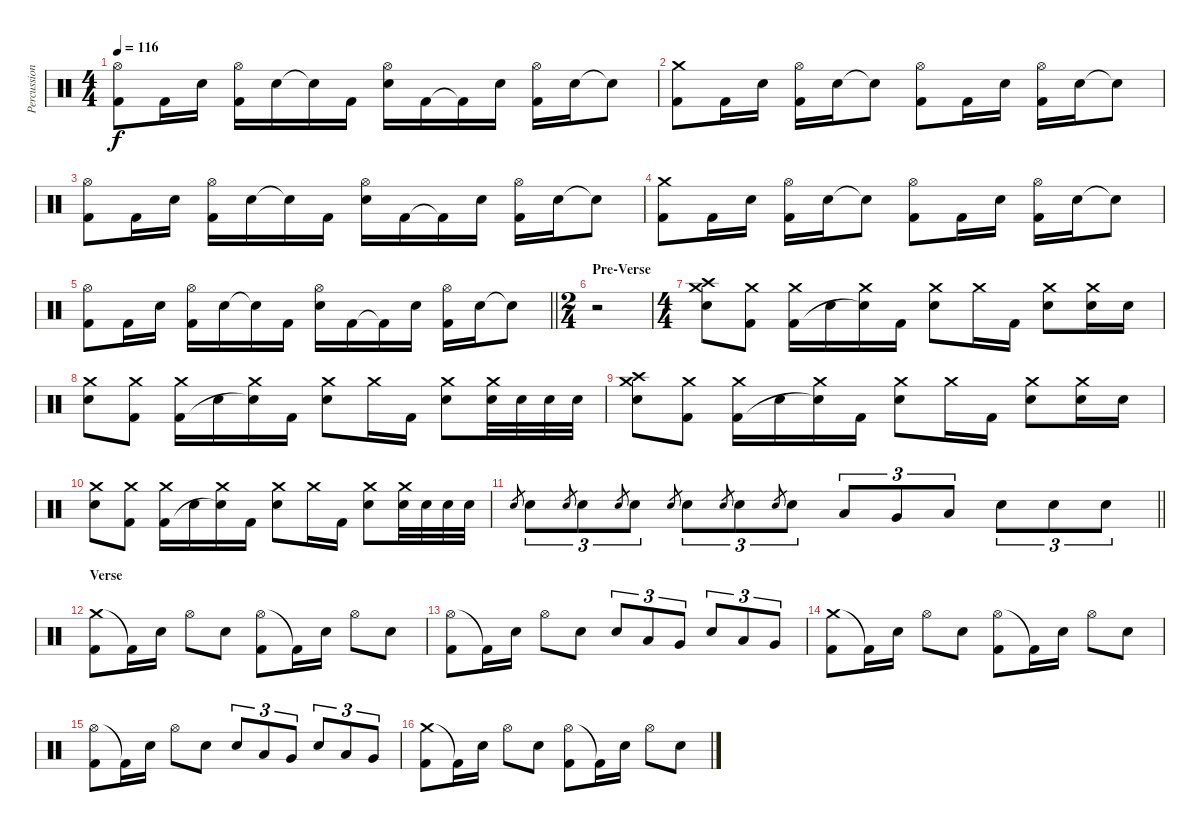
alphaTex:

\track ("Percussion" "Percussion") {instrument percussion}
\staff {score}
\articulation defaults
\ts (4 4)
\tempo 116
\clef neutral
\ks c
("Hi-Hat (open)" "Kick (hit) 2").8{dy f} "Kick (hit) 2".16 "Electric Snare (hit)".16 ("Hi-Hat (open)" "Kick (hit) 2").16 "Electric Snare (hit)".16 "Electric Snare (hit)"{t}.16 "Kick (hit) 2".16 ("Hi-Hat (open)" "Electric Snare (hit)").16 "Kick (hit) 2".16 "Kick (hit) 2"{t}.16 "Electric Snare (hit)".16 ("Hi-Hat (open)" "Kick (hit) 2").16 "Electric Snare (hit)".16 "Electric Snare (hit)"{t}.8 |
("Crash medium (hit)" "Kick (hit) 2").8 "Kick (hit) 2".16 "Electric Snare (hit)".16 ("Hi-Hat (open)" "Kick (hit) 2").16 "Electric Snare (hit)".16 "Electric Snare (hit)"{t}.8 ("Hi-Hat (open)" "Kick (hit) 2").8 "Kick (hit) 2".16 "Electric Snare (hit)".16 ("Hi-Hat (open)" "Kick (hit) 2").16 "Electric Snare (hit)".16 "Electric Snare (hit)"{t}.8 |
("Hi-Hat (open)" "Kick (hit) 2").8 "Kick (hit) 2".16 "Electric Snare (hit)".16 ("Hi-Hat (open)" "Kick (hit) 2").16 "Electric Snare (hit)".16 "Electric Snare (hit)"{t}.16 "Kick (hit) 2".16 ("Hi-Hat (open)" "Electric Snare (hit)").16 "Kick (hit) 2".16 "Kick (hit) 2"{t}.16 "Electric Snare (hit)".16 ("Hi-Hat (open)" "Kick (hit) 2").16 "Electric Snare (hit)".16 "Electric Snare (hit)"{t}.8 |
("Crash medium (hit)" "Kick (hit) 2").8 "Kick (hit) 2".16 "Electric Snare (hit)".16 ("Hi-Hat (open)" "Kick (hit) 2").16 "Electric Snare (hit)".16 "Electric Snare (hit)"{t}.8 ("Hi-Hat (open)" "Kick (hit) 2").8 "Kick (hit) 2".16 "Electric Snare (hit)".16 ("Hi-Hat (open)" "Kick (hit) 2").16 "Electric Snare (hit)".16 "Electric Snare (hit)"{t}.8 |
\barLineRight lightlight
("Hi-Hat (open)" "Kick (hit) 2").8 "Kick (hit) 2".16 "Electric Snare (hit)".16 ("Hi-Hat (open)" "Kick (hit) 2").16 "Electric Snare (hit)".16 "Electric Snare (hit)"{t}.16 "Kick (hit) 2".16 ("Hi-Hat (open)" "Electric Snare (hit)").16 "Kick (hit) 2".16 "Kick (hit) 2"{t}.16 "Electric Snare (hit)".16 ("Hi-Hat (open)" "Kick (hit) 2").16 "Electric Snare (hit)".16 "Electric Snare (hit)"{t}.8 |
\ts (2 4)
\section ("" "Pre-Verse")
r.2 |
\ts (4 4)
("Crash medium (hit)" "Crash high (hit)" "Electric Snare (hit)").8 ("Crash medium (hit)" "Kick (hit) 2").8 ("Crash medium (hit)" "Kick (hit) 2").16 "Electric Snare (hit)".16 ("Crash medium (hit)" "Electric Snare (hit)"{t}).16 "Kick (hit) 2".16 ("Crash medium (hit)" "Electric Snare (hit)").8 "Crash medium (hit)".16 "Kick (hit) 2".16 ("Crash medium (hit)" "Electric Snare (hit)").8 ("Crash medium (hit)" "Electric Snare (hit)").16 "Electric Snare (hit)".16 |
("Crash medium (hit)" "Electric Snare (hit)").8 ("Crash medium (hit)" "Kick (hit) 2").8 ("Crash medium (hit)" "Kick (hit) 2").16 "Electric Snare (hit)".16 ("Crash medium (hit)" "Electric Snare (hit)"{t}).16 "Kick (hit) 2".16 ("Crash medium (hit)" "Electric Snare (hit)").8 "Crash medium (hit)".16 "Kick (hit) 2".16 ("Crash medium (hit)" "Electric Snare (hit)").8 ("Crash medium (hit)" "Electric Snare (hit)").32 "Electric Snare (hit)".32 "Electric Snare (hit)".32 "Electric Snare (hit)".32 |
("Crash medium (hit)" "Crash high (hit)" "Electric Snare (hit)").8 ("Crash medium (hit)" "Kick (hit) 2").8 ("Crash medium (hit)" "Kick (hit) 2").16 "Electric Snare (hit)".16 ("Crash medium (hit)" "Electric Snare (hit)"{t}).16 "Kick (hit) 2".16 ("Crash medium (hit)" "Electric Snare (hit)").8 "Crash medium (hit)".16 "Kick (hit) 2".16 ("Crash medium (hit)" "Electric Snare (hit)").8 ("Crash medium (hit)" "Electric Snare (hit)").16 "Electric Snare (hit)".16 |
("Crash medium (hit)" "Electric Snare (hit)").8 ("Crash medium (hit)" "Kick (hit) 2").8 ("Crash medium (hit)" "Kick (hit) 2").16 "Electric Snare (hit)".16 ("Crash medium (hit)" "Electric Snare (hit)"{t}).16 "Kick (hit) 2".16 ("Crash medium (hit)" "Electric Snare (hit)").8 "Crash medium (hit)".16 "Kick (hit) 2".16 ("Crash medium (hit)" "Electric Snare (hit)").8 ("Crash medium (hit)" "Electric Snare (hit)").32 "Electric Snare (hit)".32 "Electric Snare (hit)".32 "Electric Snare (hit)".32 |
\barLineRight lightlight "Electric Snare (hit)".8{gr} "Electric Snare (hit)".8{tu (3 2)} "Electric Snare (hit)".8{gr} "Electric Snare (hit)".8{tu (3 2)} "Electric Snare (hit)".8{gr} "Electric Snare (hit)".8{tu (3 2)} "Electric Snare (hit)".8{gr} "Electric Snare (hit)".8{tu (3 2)} "Electric Snare (hit)".8{gr} "Electric Snare (hit)".8{tu (3 2)} "Electric Snare (hit)".8{gr} "Electric Snare (hit)".8{tu (3 2)} "Low Tom (hit)".8{tu (3 2)} "Very Low Tom (hit)".8{tu (3 2)} "Low Floor Tom (hit)".8{tu (3 2)} "Electric Snare (hit)".8{tu (3 2)} "Electric Snare (hit)".8{tu (3 2)} "Electric Snare (hit)".8{tu (3 2)}
|
\section ("" "Verse")
("Crash medium (hit)" "Kick (hit) 2").8 "Kick (hit) 2"{t}.16 "Electric Snare (hit)".16 "Hi-Hat (open)".8 "Electric Snare (hit)".8 ("Hi-Hat (open)" "Kick (hit) 2").8 "Kick (hit) 2"{t}.16 "Electric Snare (hit)".16 "Hi-Hat (open)".8 "Electric Snare (hit)".8 |
("Hi-Hat (open)" "Kick (hit) 2").8 "Kick (hit) 2"{t}.16 "Electric Snare (hit)".16 "Hi-Hat (open)".8 "Electric Snare (hit)".8 "Electric Snare (hit)".8{tu (3 2)} "Low Tom (hit)".8{tu (3 2)} "Very Low Tom (hit)".8{tu (3 2)} "Electric Snare (hit)".8{tu (3 2)} "Low Tom (hit)".8{tu (3 2)} "Very Low Tom (hit)".8{tu (3 2)} |
("Crash medium (hit)" "Kick (hit) 2").8 "Kick (hit) 2"{t}.16 "Electric Snare (hit)".16 "Hi-Hat (open)".8 "Electric Snare (hit)".8 ("Hi-Hat (open)" "Kick (hit) 2").8 "Kick (hit) 2"{t}.16 "Electric Snare (hit)".16 "Hi-Hat (open)".8 "Electric Snare (hit)".8 |
("Hi-Hat (open)" "Kick (hit) 2").8 "Kick (hit) 2"{t}.16 "Electric Snare (hit)".16 "Hi-Hat (open)".8 "Electric Snare (hit)".8 "Electric Snare (hit)".8{tu (3 2)} "Low Tom (hit)".8{tu (3 2)} "Very Low Tom (hit)".8{tu (3 2)} "Electric Snare (hit)".8{tu (3 2)} "Low Tom (hit)".8{tu (3 2)} "Very Low Tom (hit)".8{tu (3 2)} |
("Crash medium (hit)" "Kick (hit) 2").8 "Kick (hit) 2"{t}.16 "Electric Snare (hit)".16 "Hi-Hat (open)".8 "Electric Snare (hit)".8 ("Hi-Hat (open)" "Kick (hit) 2").8 "Kick (hit) 2"{t}.16 "Electric Snare (hit)".16 "Hi-Hat (open)".8 "Electric Snare (hit)".8
